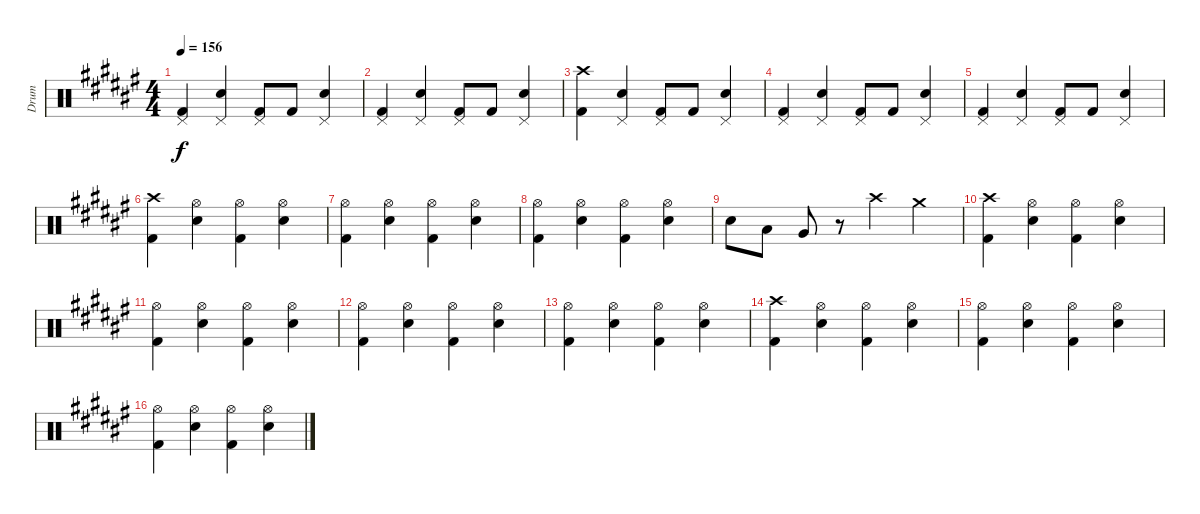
\track ("Drum" "Drum") {instrument percussion}
\staff {score}
\articulation defaults
\ts (4 4)
\tempo 156
\clef neutral
\ks f#
("Pedal Hi-Hat (hit)" "Kick (hit) 2").4{dy f} ("Pedal Hi-Hat (hit)" "Electric Snare (hit)").4 ("Pedal Hi-Hat (hit)" "Kick (hit) 2").8 "Kick (hit) 2".8 ("Pedal Hi-Hat (hit)" "Electric Snare (hit)").4 |
("Pedal Hi-Hat (hit)" "Kick (hit) 2").4 ("Pedal Hi-Hat (hit)" "Electric Snare (hit)").4 ("Pedal Hi-Hat (hit)" "Kick (hit) 2").8 "Kick (hit) 2".8 ("Pedal Hi-Hat (hit)" "Electric Snare (hit)").4 |
("Crash high (hit)" "Kick (hit) 2").4 ("Pedal Hi-Hat (hit)" "Electric Snare (hit)").4 ("Pedal Hi-Hat (hit)" "Kick (hit) 2").8 "Kick (hit) 2".8 ("Pedal Hi-Hat (hit)" "Electric Snare (hit)").4 |
("Pedal Hi-Hat (hit)" "Kick (hit) 2").4 ("Pedal Hi-Hat (hit)" "Electric Snare (hit)").4 ("Pedal Hi-Hat (hit)" "Kick (hit) 2").8 "Kick (hit) 2".8 ("Pedal Hi-Hat (hit)" "Electric Snare (hit)").4 |
("Pedal Hi-Hat (hit)" "Kick (hit) 2").4 ("Pedal Hi-Hat (hit)" "Electric Snare (hit)").4 ("Pedal Hi-Hat (hit)" "Kick (hit) 2").8 "Kick (hit) 2".8 ("Pedal Hi-Hat (hit)" "Electric Snare (hit)").4 |
("Crash high (hit)" "Kick (hit) 2").4 ("Hi-Hat (open)" "Electric Snare (hit)").4 ("Hi-Hat (open)" "Kick (hit) 2").4 ("Hi-Hat (open)" "Electric Snare (hit)").4 |
("Hi-Hat (open)" "Kick (hit) 2").4 ("Hi-Hat (open)" "Electric Snare (hit)").4 ("Hi-Hat (open)" "Kick (hit) 2").4 ("Hi-Hat (open)" "Electric Snare (hit)").4 |
("Hi-Hat (open)" "Kick (hit) 2").4 ("Hi-Hat (open)" "Electric Snare (hit)").4 ("Hi-Hat (open)" "Kick (hit) 2").4 ("Hi-Hat (open)" "Electric Snare (hit)").4 |
"Electric Snare (hit)".8 "Low Tom (hit)".8 "Very Low Tom (hit)".8 r.8 "Crash high (hit)".4 "Crash medium (hit)".4 |
("Crash high (hit)" "Kick (hit) 2").4 ("Hi-Hat (open)" "Electric Snare (hit)").4 ("Hi-Hat (open)" "Kick (hit) 2").4 ("Hi-Hat (open)" "Electric Snare (hit)").4 |
("Hi-Hat (open)" "Kick (hit) 2").4 ("Hi-Hat (open)" "Electric Snare (hit)").4 ("Hi-Hat (open)" "Kick (hit) 2").4 ("Hi-Hat (open)" "Electric Snare (hit)").4 |
("Hi-Hat (open)" "Kick (hit) 2").4 ("Hi-Hat (open)" "Electric Snare (hit)").4 ("Hi-Hat (open)" "Kick (hit) 2").4 ("Hi-Hat (open)" "Electric Snare (hit)").4 |
("Hi-Hat (open)" "Kick (hit) 2").4 ("Hi-Hat (open)" "Electric Snare (hit)").4 ("Hi-Hat (open)" "Kick (hit) 2").4 ("Hi-Hat (open)" "Electric Snare (hit)").4 |
("Crash high (hit)" "Kick (hit) 2").4 ("Hi-Hat (open)" "Electric Snare (hit)").4 ("Hi-Hat (open)" "Kick (hit) 2").4 ("Hi-Hat (open)" "Electric Snare (hit)").4 |
("Hi-Hat (open)" "Kick (hit) 2").4 ("Hi-Hat (open)" "Electric Snare (hit)").4 ("Hi-Hat (open)" "Kick (hit) 2").4 ("Hi-Hat (open)" "Electric Snare (hit)").4 |
("Hi-Hat (open)" "Kick (hit) 2").4 ("Hi-Hat (open)" "Electric Snare (hit)").4 ("Hi-Hat (open)" "Kick (hit) 2").4 ("Hi-Hat (open)" "Electric Snare (hit)").4
